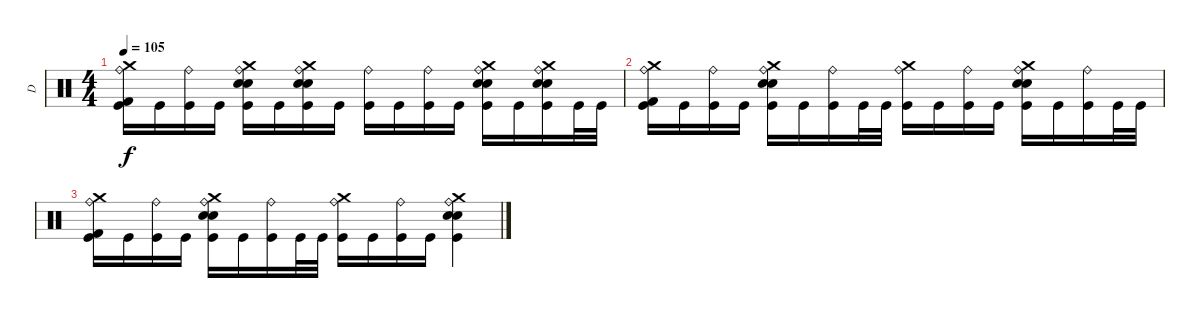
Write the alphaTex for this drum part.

\track ("D" "D") {instrument percussion}
\staff {score}
\articulation defaults
\ts (4 4)
\tempo 105
\clef neutral
\ks c
("Crash medium (hit)" "Kick (hit) 2" "Kick (hit)" "Ride (bell)").16{dy f} "Kick (hit)".16 ("Kick (hit)" "Ride (bell)").16 "Kick (hit)".16 ("Crash medium (hit)" "Electric Snare (hit)" "Electric Snare (hit)" "Kick (hit)" "Ride (bell)").16 "Kick (hit)".16 ("Crash medium (hit)" "Electric Snare (hit)" "Electric Snare (hit)" "Kick (hit)" "Ride (bell)").16 "Kick (hit)".16 ("Kick (hit)" "Ride (bell)").16 "Kick (hit)".16 ("Kick (hit)" "Ride (bell)").16 "Kick (hit)".16 ("Crash medium (hit)" "Electric Snare (hit)" "Electric Snare (hit)" "Kick (hit)" "Ride (bell)").16 "Kick (hit)".16 ("Crash medium (hit)" "Electric Snare (hit)" "Electric Snare (hit)" "Kick (hit)" "Ride (bell)").16 "Kick (hit)".32 "Kick (hit)".32 |
("Crash medium (hit)" "Kick (hit) 2" "Kick (hit)" "Ride (bell)").16 "Kick (hit)".16 ("Kick (hit)" "Ride (bell)").16 "Kick (hit)".16 ("Crash medium (hit)" "Electric Snare (hit)" "Electric Snare (hit)" "Kick (hit)" "Ride (bell)").16 "Kick (hit)".16 ("Kick (hit)" "Ride (bell)").16 "Kick (hit)".32 "Kick (hit)".32 ("Crash medium (hit)" "Kick (hit)" "Ride (bell)").16 "Kick (hit)".16 ("Kick (hit)" "Ride (bell)").16 "Kick (hit)".16 ("Crash medium (hit)" "Electric Snare (hit)" "Electric Snare (hit)" "Kick (hit)" "Ride (bell)").16 "Kick (hit)".16 ("Kick (hit)" "Ride (bell)").16 "Kick (hit)".32 "Kick (hit)".32 |
("Crash medium (hit)" "Kick (hit) 2" "Kick (hit)" "Ride (bell)").16 "Kick (hit)".16 ("Kick (hit)" "Ride (bell)").16 "Kick (hit)".16 ("Crash medium (hit)" "Electric Snare (hit)" "Electric Snare (hit)" "Kick (hit)" "Ride (bell)").16 "Kick (hit)".16 ("Kick (hit)" "Ride (bell)").16 "Kick (hit)".32 "Kick (hit)".32 ("Crash medium (hit)" "Kick (hit)" "Ride (bell)").16 "Kick (hit)".16 ("Kick (hit)" "Ride (bell)").16 "Kick (hit)".16 ("Crash medium (hit)" "Electric Snare (hit)" "Electric Snare (hit)" "Kick (hit)" "Ride (bell)").4
